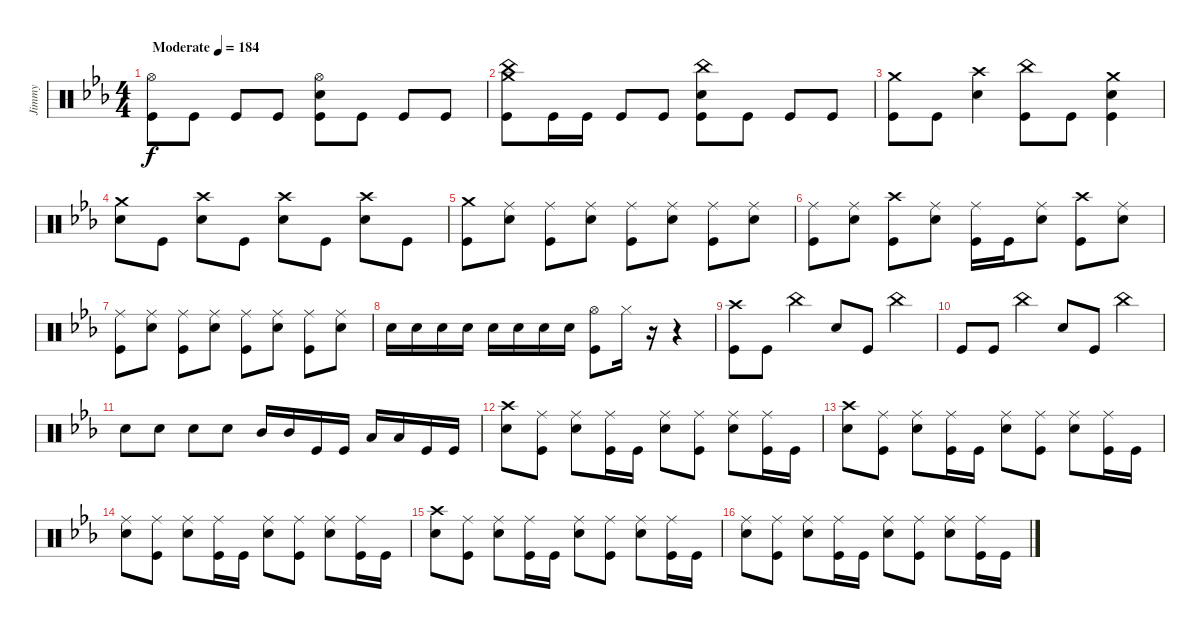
\track ("Jimmy" "Jimmy") {instrument percussion}
\staff {score}
\articulation defaults
\ts (4 4)
\tempo (184 "Moderate")
\clef neutral
\ks cminor
("Hi-Hat (open)" "Kick (hit)").8{dy f} "Kick (hit)".8 "Kick (hit)".8 "Kick (hit)".8 ("Hi-Hat (open)" "Snare (hit) 2" "Kick (hit)").8 "Kick (hit)".8 "Kick (hit)".8 "Kick (hit)".8 |
("Kick (hit)" "China (hit)" "Crash medium (hit)").8 "Kick (hit)".16 "Kick (hit)".16 "Kick (hit)".8 "Kick (hit)".8 ("China (hit)" "Snare (hit) 2" "Kick (hit)").8 "Kick (hit)".8 "Kick (hit)".8 "Kick (hit)".8 |
("Kick (hit)" "Crash medium (hit)").8 "Kick (hit)".8 ("Crash high (hit)" "Snare (hit) 2").4 ("Kick (hit)" "China (hit)").8 "Kick (hit)".8 ("Kick (hit)" "Crash medium (hit)" "Snare (hit) 2").4 |
("Crash medium (hit)" "Snare (hit) 2").8 "Kick (hit)".8 ("Crash high (hit)" "Snare (hit) 2").8 "Kick (hit)".8 ("Crash high (hit)" "Snare (hit) 2").8 "Kick (hit)".8 ("Crash high (hit)" "Snare (hit) 2").8 "Kick (hit)".8 |
("Crash medium (hit)" "Kick (hit)").8 ("Ride (middle)" "Snare (hit) 2").8 ("Ride (middle)" "Kick (hit)").8 ("Ride (middle)" "Snare (hit) 2").8 ("Ride (middle)" "Kick (hit)").8 ("Snare (hit) 2" "Ride (middle)").8 ("Ride (middle)" "Kick (hit)").8 ("Ride (middle)" "Snare (hit) 2").8 |
("Ride (middle)" "Kick (hit)").8 ("Ride (middle)" "Snare (hit) 2").8 ("Crash high (hit)" "Kick (hit)").8 ("Snare (hit) 2" "Ride (middle)").8 ("Ride (middle)" "Kick (hit)").16 "Kick (hit)".16 ("Snare (hit) 2" "Ride (middle)").8 ("Crash high (hit)" "Kick (hit)").8 ("Snare (hit) 2" "Ride (middle)").8 |
("Ride (middle)" "Kick (hit)").8 ("Ride (middle)" "Snare (hit) 2").8 ("Ride (middle)" "Kick (hit)").8 ("Snare (hit) 2" "Ride (middle)").8 ("Ride (middle)" "Kick (hit)").8 ("Ride (middle)" "Snare (hit) 2").8 ("Ride (middle)" "Kick (hit)").8 ("Snare (hit) 2" "Ride (middle)").8 |
"Snare (hit) 2".16 "Snare (hit) 2".16 "Snare (hit) 2".16 "Snare (hit) 2".16 "Snare (hit) 2".16 "Snare (hit) 2".16 "Snare (hit) 2".16 "Snare (hit) 2".16 ("Kick (hit)" "Hi-Hat (open)").8 "Hi-Hat (closed)".16 r.16 r.4 |
("Kick (hit)" "Crash high (hit)").8 "Kick (hit)".8 "China (hit)".4 "Snare (hit) 2".8 "Kick (hit)".8 "China (hit)".4 |
"Kick (hit)".8 "Kick (hit)".8 "China (hit)".4 "Snare (hit) 2".8 "Kick (hit)".8 "China (hit)".4 |
"Snare (hit) 2".8 "Snare (hit) 2".8 "Snare (hit) 2".8 "Snare (hit) 2".8 "Mid Tom (hit)".16 "Mid Tom (hit)".16 "Kick (hit)".16 "Kick (hit)".16 "Low Tom (hit)".16 "Low Tom (hit)".16 "Kick (hit)".16 "Kick (hit)".16 |
("Crash high (hit)" "Snare (hit) 2").8 ("Ride (middle)" "Kick (hit)").8 ("Snare (hit) 2" "Ride (middle)").8 ("Kick (hit)" "Ride (middle)").16 "Kick (hit)".16 ("Ride (middle)" "Snare (hit) 2").8 ("Ride (middle)" "Kick (hit)").8 ("Snare (hit) 2" "Ride (middle)").8 ("Kick (hit)" "Ride (middle)").16 "Kick (hit)".16 |
("Crash high (hit)" "Snare (hit) 2").8 ("Ride (middle)" "Kick (hit)").8 ("Snare (hit) 2" "Ride (middle)").8 ("Kick (hit)" "Ride (middle)").16 "Kick (hit)".16 ("Ride (middle)" "Snare (hit) 2").8 ("Ride (middle)" "Kick (hit)").8 ("Snare (hit) 2" "Ride (middle)").8 ("Kick (hit)" "Ride (middle)").16 "Kick (hit)".16 |
("Ride (middle)" "Snare (hit) 2").8 ("Ride (middle)" "Kick (hit)").8 ("Snare (hit) 2" "Ride (middle)").8 ("Kick (hit)" "Ride (middle)").16 "Kick (hit)".16 ("Ride (middle)" "Snare (hit) 2").8 ("Ride (middle)" "Kick (hit)").8 ("Snare (hit) 2" "Ride (middle)").8 ("Kick (hit)" "Ride (middle)").16 "Kick (hit)".16 |
("Crash high (hit)" "Snare (hit) 2").8 ("Ride (middle)" "Kick (hit)").8 ("Snare (hit) 2" "Ride (middle)").8 ("Kick (hit)" "Ride (middle)").16 "Kick (hit)".16 ("Ride (middle)" "Snare (hit) 2").8 ("Ride (middle)" "Kick (hit)").8 ("Snare (hit) 2" "Ride (middle)").8 ("Kick (hit)" "Ride (middle)").16 "Kick (hit)".16 |
("Ride (middle)" "Snare (hit) 2").8 ("Ride (middle)" "Kick (hit)").8 ("Snare (hit) 2" "Ride (middle)").8 ("Kick (hit)" "Ride (middle)").16 "Kick (hit)".16 ("Ride (middle)" "Snare (hit) 2").8 ("Ride (middle)" "Kick (hit)").8 ("Snare (hit) 2" "Ride (middle)").8 ("Kick (hit)" "Ride (middle)").16 "Kick (hit)".16
